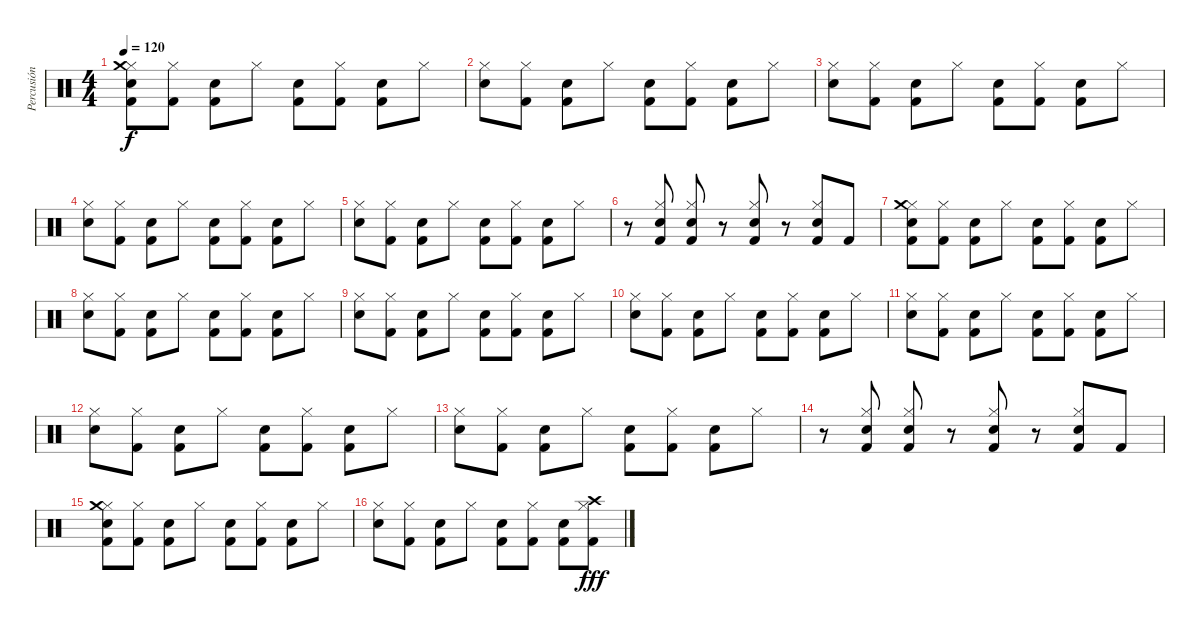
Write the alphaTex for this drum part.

\track ("Percusión" "Percusión") {instrument percussion}
\staff {score}
\articulation defaults
\ts (4 4)
\tempo 120
\clef neutral
\ks c
("Electric Snare (hit)" "Hi-Hat (closed)" "Crash medium (hit)" "Kick (hit) 2").8{dy f} ("Hi-Hat (closed)" "Kick (hit) 2").8 ("Electric Snare (hit)" "Kick (hit) 2").8 "Hi-Hat (closed)".8 ("Electric Snare (hit)" "Kick (hit) 2").8 ("Hi-Hat (closed)" "Kick (hit) 2").8 ("Electric Snare (hit)" "Kick (hit) 2").8 "Hi-Hat (closed)".8 |
("Electric Snare (hit)" "Hi-Hat (closed)").8 ("Hi-Hat (closed)" "Kick (hit) 2").8 ("Electric Snare (hit)" "Kick (hit) 2").8 "Hi-Hat (closed)".8 ("Electric Snare (hit)" "Kick (hit) 2").8 ("Hi-Hat (closed)" "Kick (hit) 2").8 ("Electric Snare (hit)" "Kick (hit) 2").8 "Hi-Hat (closed)".8 |
("Electric Snare (hit)" "Hi-Hat (closed)").8 ("Hi-Hat (closed)" "Kick (hit) 2").8 ("Electric Snare (hit)" "Kick (hit) 2").8 "Hi-Hat (closed)".8 ("Electric Snare (hit)" "Kick (hit) 2").8 ("Hi-Hat (closed)" "Kick (hit) 2").8 ("Electric Snare (hit)" "Kick (hit) 2").8 "Hi-Hat (closed)".8 |
("Electric Snare (hit)" "Hi-Hat (closed)").8 ("Hi-Hat (closed)" "Kick (hit) 2").8 ("Electric Snare (hit)" "Kick (hit) 2").8 "Hi-Hat (closed)".8 ("Electric Snare (hit)" "Kick (hit) 2").8 ("Hi-Hat (closed)" "Kick (hit) 2").8 ("Electric Snare (hit)" "Kick (hit) 2").8 "Hi-Hat (closed)".8 |
("Electric Snare (hit)" "Hi-Hat (closed)").8 ("Hi-Hat (closed)" "Kick (hit) 2").8 ("Electric Snare (hit)" "Kick (hit) 2").8 "Hi-Hat (closed)".8 ("Electric Snare (hit)" "Kick (hit) 2").8 ("Hi-Hat (closed)" "Kick (hit) 2").8 ("Electric Snare (hit)" "Kick (hit) 2").8 "Hi-Hat (closed)".8 |
r.8 ("Electric Snare (hit)" "Kick (hit) 2" "Hi-Hat (closed)").8 ("Electric Snare (hit)" "Kick (hit) 2" "Hi-Hat (closed)").8 r.8 ("Electric Snare (hit)" "Kick (hit) 2" "Hi-Hat (closed)").8 r.8 ("Electric Snare (hit)" "Kick (hit) 2" "Hi-Hat (closed)").8 "Kick (hit) 2".8 |
("Electric Snare (hit)" "Hi-Hat (closed)" "Crash medium (hit)" "Kick (hit) 2").8 ("Hi-Hat (closed)" "Kick (hit) 2").8 ("Electric Snare (hit)" "Kick (hit) 2").8 "Hi-Hat (closed)".8 ("Electric Snare (hit)" "Kick (hit) 2").8 ("Hi-Hat (closed)" "Kick (hit) 2").8 ("Electric Snare (hit)" "Kick (hit) 2").8 "Hi-Hat (closed)".8 |
("Electric Snare (hit)" "Hi-Hat (closed)").8 ("Hi-Hat (closed)" "Kick (hit) 2").8 ("Electric Snare (hit)" "Kick (hit) 2").8 "Hi-Hat (closed)".8 ("Electric Snare (hit)" "Kick (hit) 2").8 ("Hi-Hat (closed)" "Kick (hit) 2").8 ("Electric Snare (hit)" "Kick (hit) 2").8 "Hi-Hat (closed)".8 |
("Electric Snare (hit)" "Hi-Hat (closed)").8 ("Hi-Hat (closed)" "Kick (hit) 2").8 ("Electric Snare (hit)" "Kick (hit) 2").8 "Hi-Hat (closed)".8 ("Electric Snare (hit)" "Kick (hit) 2").8 ("Hi-Hat (closed)" "Kick (hit) 2").8 ("Electric Snare (hit)" "Kick (hit) 2").8 "Hi-Hat (closed)".8 |
("Electric Snare (hit)" "Hi-Hat (closed)").8 ("Hi-Hat (closed)" "Kick (hit) 2").8 ("Electric Snare (hit)" "Kick (hit) 2").8 "Hi-Hat (closed)".8 ("Electric Snare (hit)" "Kick (hit) 2").8 ("Hi-Hat (closed)" "Kick (hit) 2").8 ("Electric Snare (hit)" "Kick (hit) 2").8 "Hi-Hat (closed)".8 |
("Electric Snare (hit)" "Hi-Hat (closed)").8 ("Hi-Hat (closed)" "Kick (hit) 2").8 ("Electric Snare (hit)" "Kick (hit) 2").8 "Hi-Hat (closed)".8 ("Electric Snare (hit)" "Kick (hit) 2").8 ("Hi-Hat (closed)" "Kick (hit) 2").8 ("Electric Snare (hit)" "Kick (hit) 2").8 "Hi-Hat (closed)".8 |
("Electric Snare (hit)" "Hi-Hat (closed)").8 ("Hi-Hat (closed)" "Kick (hit) 2").8 ("Electric Snare (hit)" "Kick (hit) 2").8 "Hi-Hat (closed)".8 ("Electric Snare (hit)" "Kick (hit) 2").8 ("Hi-Hat (closed)" "Kick (hit) 2").8 ("Electric Snare (hit)" "Kick (hit) 2").8 "Hi-Hat (closed)".8 |
("Electric Snare (hit)" "Hi-Hat (closed)").8 ("Hi-Hat (closed)" "Kick (hit) 2").8 ("Electric Snare (hit)" "Kick (hit) 2").8 "Hi-Hat (closed)".8 ("Electric Snare (hit)" "Kick (hit) 2").8 ("Hi-Hat (closed)" "Kick (hit) 2").8 ("Electric Snare (hit)" "Kick (hit) 2").8 "Hi-Hat (closed)".8 |
r.8 ("Electric Snare (hit)" "Kick (hit) 2" "Hi-Hat (closed)").8 ("Electric Snare (hit)" "Kick (hit) 2" "Hi-Hat (closed)").8 r.8 ("Electric Snare (hit)" "Kick (hit) 2" "Hi-Hat (closed)").8 r.8 ("Electric Snare (hit)" "Kick (hit) 2" "Hi-Hat (closed)").8 "Kick (hit) 2".8 |
("Electric Snare (hit)" "Hi-Hat (closed)" "Crash medium (hit)" "Kick (hit) 2").8 ("Hi-Hat (closed)" "Kick (hit) 2").8 ("Electric Snare (hit)" "Kick (hit) 2").8 "Hi-Hat (closed)".8 ("Electric Snare (hit)" "Kick (hit) 2").8 ("Hi-Hat (closed)" "Kick (hit) 2").8 ("Electric Snare (hit)" "Kick (hit) 2").8 "Hi-Hat (closed)".8 |
("Electric Snare (hit)" "Hi-Hat (closed)").8 ("Hi-Hat (closed)" "Kick (hit) 2").8 ("Electric Snare (hit)" "Kick (hit) 2").8 "Hi-Hat (closed)".8 ("Electric Snare (hit)" "Kick (hit) 2").8 ("Hi-Hat (closed)" "Kick (hit) 2").8 ("Electric Snare (hit)" "Kick (hit) 2").8 ("Hi-Hat (closed)" "Kick (hit) 2" "Crash high (hit)").8{dy fff}
